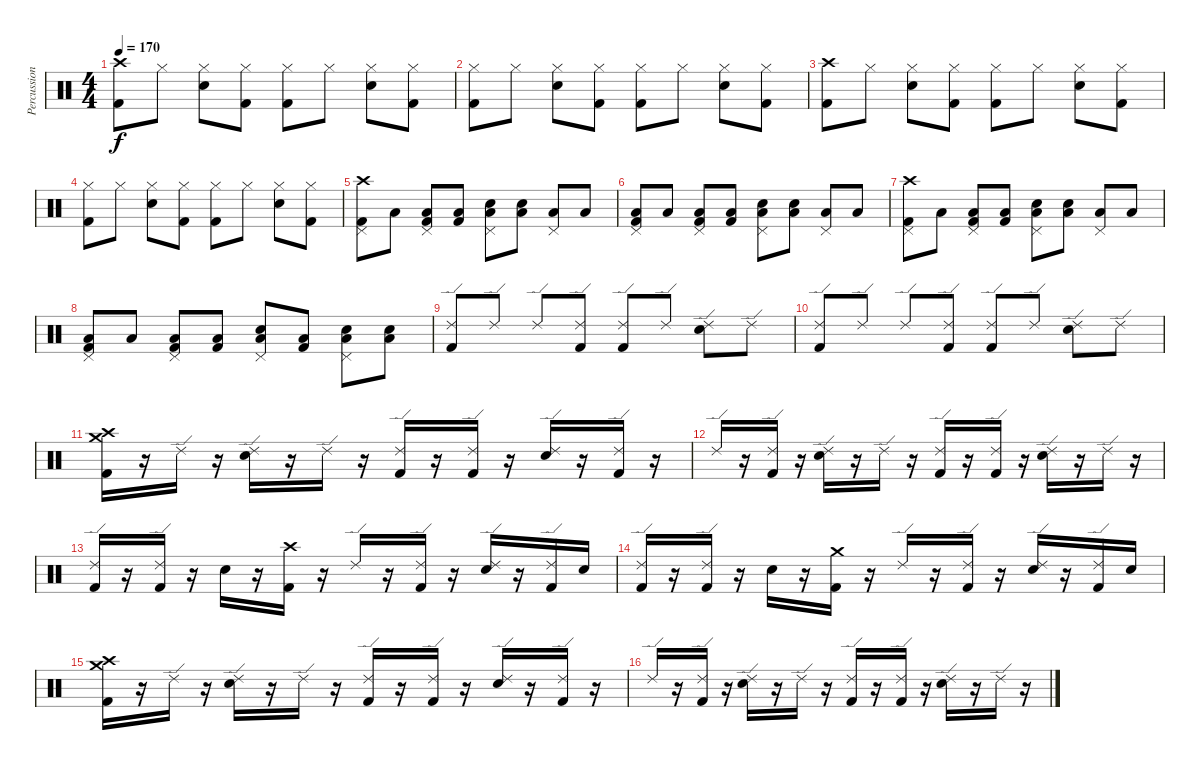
\track ("Percussion" "Percussion") {instrument percussion}
\staff {score}
\articulation defaults
\ts (4 4)
\tempo 170
\clef neutral
\ks c
("Crash high (hit)" "Kick (hit) 2").8{dy f} "Hi-Hat (closed)".8 ("Hi-Hat (closed)" "Snare (hit) 2").8 ("Hi-Hat (closed)" "Kick (hit) 2").8 ("Hi-Hat (closed)" "Kick (hit) 2").8 "Hi-Hat (closed)".8 ("Hi-Hat (closed)" "Snare (hit) 2").8 ("Hi-Hat (closed)" "Kick (hit) 2").8 |
("Hi-Hat (closed)" "Kick (hit) 2").8 "Hi-Hat (closed)".8 ("Hi-Hat (closed)" "Snare (hit) 2").8 ("Hi-Hat (closed)" "Kick (hit) 2").8 ("Hi-Hat (closed)" "Kick (hit) 2").8 "Hi-Hat (closed)".8 ("Hi-Hat (closed)" "Snare (hit) 2").8 ("Hi-Hat (closed)" "Kick (hit) 2").8 |
("Crash high (hit)" "Kick (hit) 2").8 "Hi-Hat (closed)".8 ("Hi-Hat (closed)" "Snare (hit) 2").8 ("Hi-Hat (closed)" "Kick (hit) 2").8 ("Hi-Hat (closed)" "Kick (hit) 2").8 "Hi-Hat (closed)".8 ("Hi-Hat (closed)" "Snare (hit) 2").8 ("Hi-Hat (closed)" "Kick (hit) 2").8 |
("Hi-Hat (closed)" "Kick (hit) 2").8 "Hi-Hat (closed)".8 ("Hi-Hat (closed)" "Snare (hit) 2").8 ("Hi-Hat (closed)" "Kick (hit) 2").8 ("Hi-Hat (closed)" "Kick (hit) 2").8 "Hi-Hat (closed)".8 ("Hi-Hat (closed)" "Snare (hit) 2").8 ("Hi-Hat (closed)" "Kick (hit) 2").8 |
("Pedal Hi-Hat (hit)" "Crash high (hit)" "Kick (hit) 2").8 "Low Tom (hit)".8 ("Pedal Hi-Hat (hit)" "Low Tom (hit)" "Kick (hit) 2").8 ("Low Tom (hit)" "Kick (hit) 2").8 ("Pedal Hi-Hat (hit)" "Low Tom (hit)" "Snare (hit) 2").8 ("Low Tom (hit)" "Snare (hit) 2").8 ("Pedal Hi-Hat (hit)" "Low Tom (hit)").8 "Low Tom (hit)".8 |
("Pedal Hi-Hat (hit)" "Low Tom (hit)" "Kick (hit) 2").8 "Low Tom (hit)".8 ("Pedal Hi-Hat (hit)" "Low Tom (hit)" "Kick (hit) 2").8 ("Low Tom (hit)" "Kick (hit) 2").8 ("Pedal Hi-Hat (hit)" "Low Tom (hit)" "Snare (hit) 2").8 ("Low Tom (hit)" "Snare (hit) 2").8 ("Pedal Hi-Hat (hit)" "Low Tom (hit)").8 "Low Tom (hit)".8 |
("Pedal Hi-Hat (hit)" "Crash high (hit)" "Kick (hit) 2").8 "Low Tom (hit)".8 ("Pedal Hi-Hat (hit)" "Low Tom (hit)" "Kick (hit) 2").8 ("Low Tom (hit)" "Kick (hit) 2").8 ("Pedal Hi-Hat (hit)" "Low Tom (hit)" "Snare (hit) 2").8 ("Low Tom (hit)" "Snare (hit) 2").8 ("Pedal Hi-Hat (hit)" "Low Tom (hit)").8 "Low Tom (hit)".8 |
("Pedal Hi-Hat (hit)" "Low Tom (hit)" "Kick (hit) 2").8 "Low Tom (hit)".8 ("Pedal Hi-Hat (hit)" "Low Tom (hit)" "Kick (hit) 2").8 ("Low Tom (hit)" "Kick (hit) 2").8 ("Pedal Hi-Hat (hit)" "Low Tom (hit)" "Snare (hit) 2").8 ("Low Tom (hit)" "Kick (hit) 2").8 ("Pedal Hi-Hat (hit)" "Low Tom (hit)" "Snare (hit) 2").8 ("Low Tom (hit)" "Snare (hit) 2").8 |
("Kick (hit) 2" "Ride (edge) 2").8 "Ride (edge) 2".8 "Ride (edge) 2".8 ("Kick (hit) 2" "Ride (edge) 2").8 ("Kick (hit) 2" "Ride (edge) 2").8 "Ride (edge) 2".8 ("Snare (hit) 2" "Ride (edge) 2").8 "Ride (edge) 2".8 |
("Kick (hit) 2" "Ride (edge) 2").8 "Ride (edge) 2".8 "Ride (edge) 2".8 ("Kick (hit) 2" "Ride (edge) 2").8 ("Kick (hit) 2" "Ride (edge) 2").8 "Ride (edge) 2".8 ("Snare (hit) 2" "Ride (edge) 2").8 "Ride (edge) 2".8 |
("Crash medium (hit)" "Crash high (hit)" "Kick (hit) 2").16 r.16 "Ride (edge) 2".16 r.16 ("Ride (edge) 2" "Snare (hit) 2").16 r.16 "Ride (edge) 2".16 r.16 ("Ride (edge) 2" "Kick (hit) 2").16 r.16 ("Ride (edge) 2" "Kick (hit) 2").16 r.16 ("Ride (edge) 2" "Snare (hit) 2").16 r.16 ("Ride (edge) 2" "Kick (hit) 2").16 r.16 |
"Ride (edge) 2".16 r.16 ("Ride (edge) 2" "Kick (hit) 2").16 r.16 ("Ride (edge) 2" "Snare (hit) 2").16 r.16 "Ride (edge) 2".16 r.16 ("Ride (edge) 2" "Kick (hit) 2").16 r.16 ("Ride (edge) 2" "Kick (hit) 2").16 r.16 ("Ride (edge) 2" "Snare (hit) 2").16 r.16 "Ride (edge) 2".16 r.16 |
("Ride (edge) 2" "Kick (hit) 2").16 r.16 ("Ride (edge) 2" "Kick (hit) 2").16 r.16 "Snare (hit) 2".16 r.16 ("Crash high (hit)" "Kick (hit) 2").16 r.16 "Ride (edge) 2".16 r.16 ("Ride (edge) 2" "Kick (hit) 2").16 r.16 ("Ride (edge) 2" "Snare (hit) 2").16 r.16 ("Ride (edge) 2" "Kick (hit) 2").16 "Snare (hit) 2".16 |
("Ride (edge) 2" "Kick (hit) 2").16 r.16 ("Ride (edge) 2" "Kick (hit) 2").16 r.16 "Snare (hit) 2".16 r.16 ("Crash medium (hit)" "Kick (hit) 2").16 r.16 "Ride (edge) 2".16 r.16 ("Ride (edge) 2" "Kick (hit) 2").16 r.16 ("Ride (edge) 2" "Snare (hit) 2").16 r.16 ("Ride (edge) 2" "Kick (hit) 2").16 "Snare (hit) 2".16 |
("Crash medium (hit)" "Crash high (hit)" "Kick (hit) 2").16 r.16 "Ride (edge) 2".16 r.16 ("Ride (edge) 2" "Snare (hit) 2").16 r.16 "Ride (edge) 2".16 r.16 ("Ride (edge) 2" "Kick (hit) 2").16 r.16 ("Ride (edge) 2" "Kick (hit) 2").16 r.16 ("Ride (edge) 2" "Snare (hit) 2").16 r.16 ("Ride (edge) 2" "Kick (hit) 2").16 r.16 |
"Ride (edge) 2".16 r.16 ("Ride (edge) 2" "Kick (hit) 2").16 r.16 ("Ride (edge) 2" "Snare (hit) 2").16 r.16 "Ride (edge) 2".16 r.16 ("Ride (edge) 2" "Kick (hit) 2").16 r.16 ("Ride (edge) 2" "Kick (hit) 2").16 r.16 ("Ride (edge) 2" "Snare (hit) 2").16 r.16 "Ride (edge) 2".16 r.16
